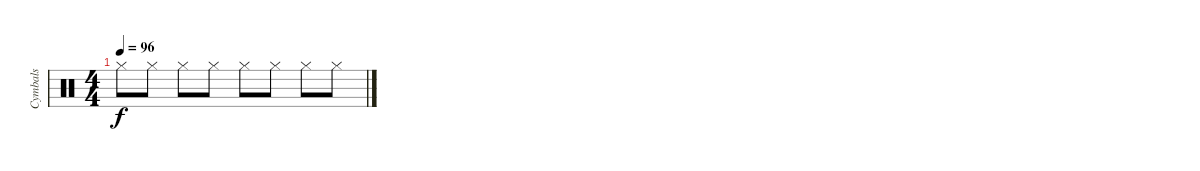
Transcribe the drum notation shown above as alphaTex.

\track ("Cymbals" "Cymbals") {instrument percussion}
\staff {score}
\articulation defaults
\ts (4 4)
\tempo 96
\clef neutral
\ks c "Hi-Hat (closed)".8{dy f} "Hi-Hat (closed)".8 "Hi-Hat (closed)".8 "Hi-Hat (closed)".8 "Hi-Hat (closed)".8 "Hi-Hat (closed)".8 "Hi-Hat (closed)".8 "Hi-Hat (closed)".8
